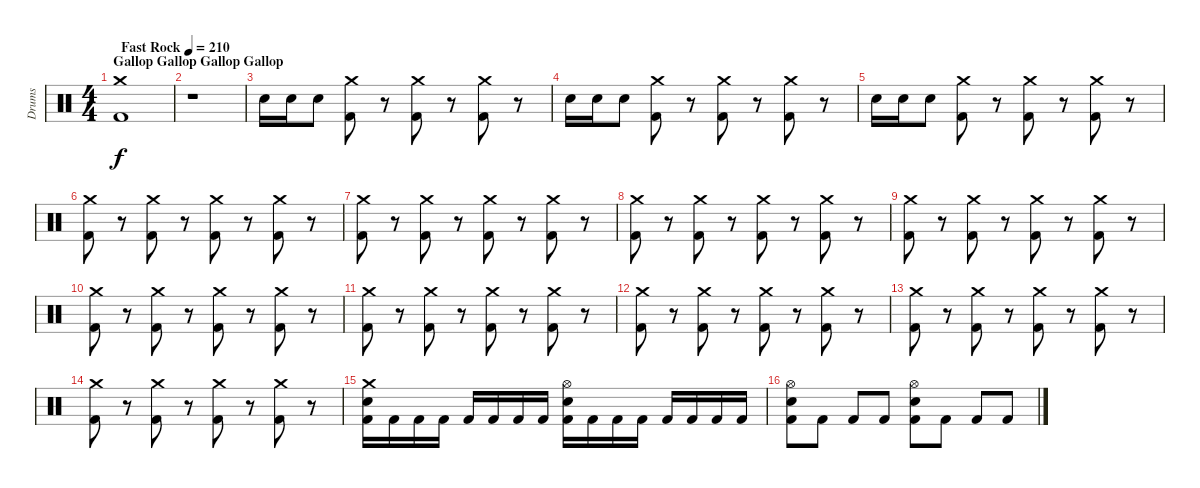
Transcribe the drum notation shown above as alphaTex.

\track ("Drums" "Drums") {instrument percussion}
\staff {score}
\articulation defaults
\ts (4 4)
\section ("" "Gallop Gallop Gallop Gallop")
\tempo (210 "Fast Rock")
\clef neutral
\ks c
("Crash medium (hit)" "Kick (hit) 2").1{dy f} |
r.1 |
"Electric Snare (hit)".16 "Electric Snare (hit)".16 "Electric Snare (hit)".8 ("Crash medium (hit)" "Kick (hit) 2").8 r.8 ("Crash medium (hit)" "Kick (hit) 2").8 r.8 ("Crash medium (hit)" "Kick (hit) 2").8 r.8 |
"Electric Snare (hit)".16 "Electric Snare (hit)".16 "Electric Snare (hit)".8 ("Crash medium (hit)" "Kick (hit) 2").8 r.8 ("Crash medium (hit)" "Kick (hit) 2").8 r.8 ("Crash medium (hit)" "Kick (hit) 2").8 r.8 |
"Electric Snare (hit)".16 "Electric Snare (hit)".16 "Electric Snare (hit)".8 ("Crash medium (hit)" "Kick (hit) 2").8 r.8 ("Crash medium (hit)" "Kick (hit) 2").8 r.8 ("Crash medium (hit)" "Kick (hit) 2").8 r.8 |
("Crash medium (hit)" "Kick (hit) 2").8 r.8 ("Crash medium (hit)" "Kick (hit) 2").8 r.8 ("Crash medium (hit)" "Kick (hit) 2").8 r.8 ("Crash medium (hit)" "Kick (hit) 2").8 r.8 |
("Crash medium (hit)" "Kick (hit) 2").8 r.8 ("Crash medium (hit)" "Kick (hit) 2").8 r.8 ("Crash medium (hit)" "Kick (hit) 2").8 r.8 ("Crash medium (hit)" "Kick (hit) 2").8 r.8 |
("Crash medium (hit)" "Kick (hit) 2").8 r.8 ("Crash medium (hit)" "Kick (hit) 2").8 r.8 ("Crash medium (hit)" "Kick (hit) 2").8 r.8 ("Crash medium (hit)" "Kick (hit) 2").8 r.8 |
("Crash medium (hit)" "Kick (hit) 2").8 r.8 ("Crash medium (hit)" "Kick (hit) 2").8 r.8 ("Crash medium (hit)" "Kick (hit) 2").8 r.8 ("Crash medium (hit)" "Kick (hit) 2").8 r.8 |
("Crash medium (hit)" "Kick (hit) 2").8 r.8 ("Crash medium (hit)" "Kick (hit) 2").8 r.8 ("Crash medium (hit)" "Kick (hit) 2").8 r.8 ("Crash medium (hit)" "Kick (hit) 2").8 r.8 |
("Crash medium (hit)" "Kick (hit) 2").8 r.8 ("Crash medium (hit)" "Kick (hit) 2").8 r.8 ("Crash medium (hit)" "Kick (hit) 2").8 r.8 ("Crash medium (hit)" "Kick (hit) 2").8 r.8 |
("Crash medium (hit)" "Kick (hit) 2").8 r.8 ("Crash medium (hit)" "Kick (hit) 2").8 r.8 ("Crash medium (hit)" "Kick (hit) 2").8 r.8 ("Crash medium (hit)" "Kick (hit) 2").8 r.8 |
("Crash medium (hit)" "Kick (hit) 2").8 r.8 ("Crash medium (hit)" "Kick (hit) 2").8 r.8 ("Crash medium (hit)" "Kick (hit) 2").8 r.8 ("Crash medium (hit)" "Kick (hit) 2").8 r.8 |
("Crash medium (hit)" "Kick (hit) 2").8 r.8 ("Crash medium (hit)" "Kick (hit) 2").8 r.8 ("Crash medium (hit)" "Kick (hit) 2").8 r.8 ("Crash medium (hit)" "Kick (hit) 2").8 r.8 |
("Crash medium (hit)" "Electric Snare (hit)" "Kick (hit) 2").16 "Kick (hit) 2".16 "Kick (hit) 2".16 "Kick (hit) 2".16 "Kick (hit) 2".16 "Kick (hit) 2".16 "Kick (hit) 2".16 "Kick (hit) 2".16 ("Hi-Hat (open)" "Electric Snare (hit)" "Kick (hit) 2").16 "Kick (hit) 2".16 "Kick (hit) 2".16 "Kick (hit) 2".16 "Kick (hit) 2".16 "Kick (hit) 2".16 "Kick (hit) 2".16 "Kick (hit) 2".16 |
("Hi-Hat (open)" "Electric Snare (hit)" "Kick (hit) 2").8 "Kick (hit) 2".8 "Kick (hit) 2".8 "Kick (hit) 2".8 ("Hi-Hat (open)" "Electric Snare (hit)" "Kick (hit) 2").8 "Kick (hit) 2".8 "Kick (hit) 2".8 "Kick (hit) 2".8
